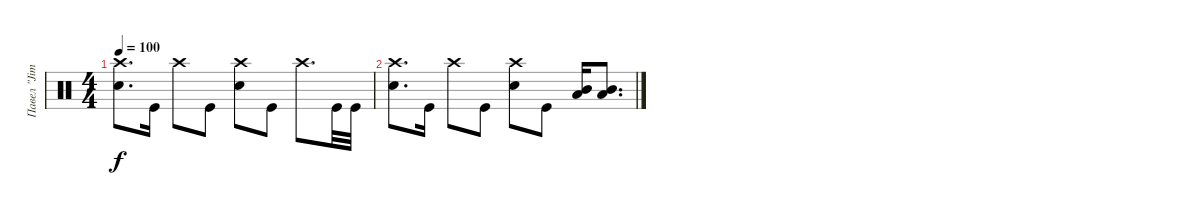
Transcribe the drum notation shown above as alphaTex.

\track ("Павел \"Jim\" Лохнин" "Павел \"Jim") {instrument percussion}
\staff {score}
\articulation defaults
\ts (4 4)
\tempo 100
\clef neutral
\ks c
("Electric Snare (hit)" "Crash high (hit)").8{d dy f} "Kick (hit)".16 "Crash high (hit)".8 "Kick (hit)".8 ("Electric Snare (hit)" "Crash high (hit)").8 "Kick (hit)".8 "Crash high (hit)".8{d} "Kick (hit)".32 "Kick (hit)".32 |
("Electric Snare (hit)" "Crash high (hit)").8{d} "Kick (hit)".16 "Crash high (hit)".8 "Kick (hit)".8 ("Electric Snare (hit)" "Crash high (hit)").8 "Kick (hit)".8 ("Low Tom (hit)" "Mid Tom (hit)").16 ("Low Tom (hit)" "Mid Tom (hit)").8{d}
